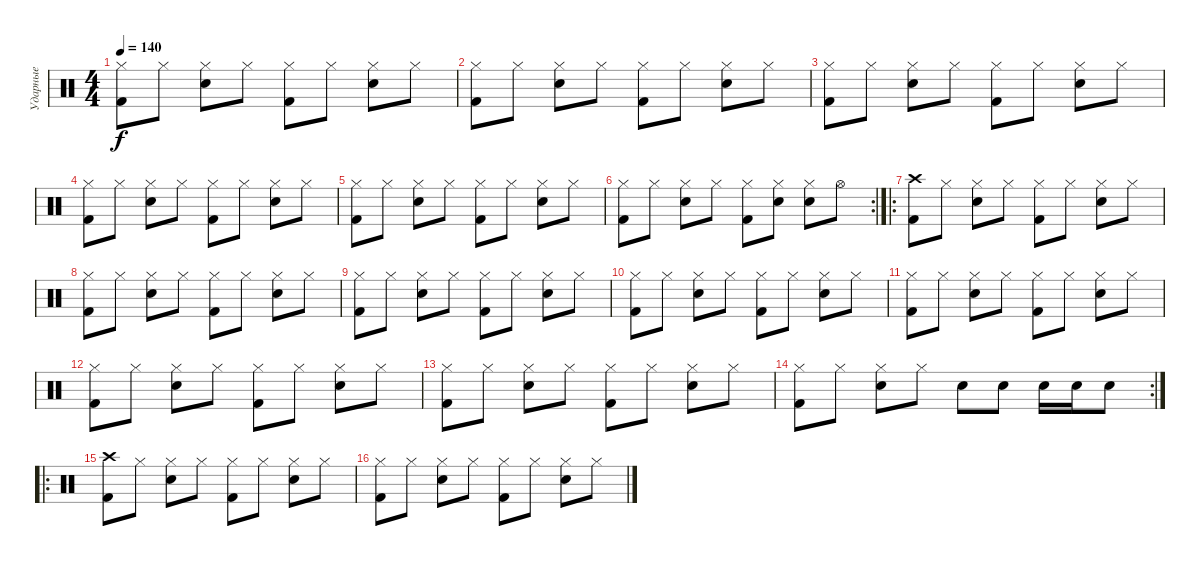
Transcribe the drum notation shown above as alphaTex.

\track ("Ударные" "Ударные") {instrument percussion}
\staff {score}
\articulation defaults
\ts (4 4)
\tempo 140
\clef neutral
\ks c
("Hi-Hat (closed)" "Kick (hit) 2").8{dy f} "Hi-Hat (closed)".8 ("Hi-Hat (closed)" "Snare (hit) 2").8 "Hi-Hat (closed)".8 ("Hi-Hat (closed)" "Kick (hit) 2").8 "Hi-Hat (closed)".8 ("Hi-Hat (closed)" "Snare (hit) 2").8 "Hi-Hat (closed)".8 |
("Hi-Hat (closed)" "Kick (hit) 2").8 "Hi-Hat (closed)".8 ("Hi-Hat (closed)" "Snare (hit) 2").8 "Hi-Hat (closed)".8 ("Hi-Hat (closed)" "Kick (hit) 2").8 "Hi-Hat (closed)".8 ("Hi-Hat (closed)" "Snare (hit) 2").8 "Hi-Hat (closed)".8 |
("Hi-Hat (closed)" "Kick (hit) 2").8 "Hi-Hat (closed)".8 ("Hi-Hat (closed)" "Snare (hit) 2").8 "Hi-Hat (closed)".8 ("Hi-Hat (closed)" "Kick (hit) 2").8 "Hi-Hat (closed)".8 ("Hi-Hat (closed)" "Snare (hit) 2").8 "Hi-Hat (closed)".8 |
("Hi-Hat (closed)" "Kick (hit) 2").8 "Hi-Hat (closed)".8 ("Hi-Hat (closed)" "Snare (hit) 2").8 "Hi-Hat (closed)".8 ("Hi-Hat (closed)" "Kick (hit) 2").8 "Hi-Hat (closed)".8 ("Hi-Hat (closed)" "Snare (hit) 2").8 "Hi-Hat (closed)".8 |
("Hi-Hat (closed)" "Kick (hit) 2").8 "Hi-Hat (closed)".8 ("Hi-Hat (closed)" "Snare (hit) 2").8 "Hi-Hat (closed)".8 ("Hi-Hat (closed)" "Kick (hit) 2").8 "Hi-Hat (closed)".8 ("Hi-Hat (closed)" "Snare (hit) 2").8 "Hi-Hat (closed)".8 |
\rc 2
("Hi-Hat (closed)" "Kick (hit) 2").8 "Hi-Hat (closed)".8 ("Hi-Hat (closed)" "Snare (hit) 2").8 "Hi-Hat (closed)".8 ("Hi-Hat (closed)" "Kick (hit) 2").8 ("Hi-Hat (closed)" "Snare (hit) 2").8 ("Hi-Hat (closed)" "Snare (hit) 2").8 "Hi-Hat (open)".8 |
\ro
("Crash high (hit)" "Kick (hit) 2").8 "Hi-Hat (closed)".8 ("Hi-Hat (closed)" "Snare (hit) 2").8 "Hi-Hat (closed)".8 ("Hi-Hat (closed)" "Kick (hit) 2").8 "Hi-Hat (closed)".8 ("Hi-Hat (closed)" "Snare (hit) 2").8 "Hi-Hat (closed)".8 |
("Hi-Hat (closed)" "Kick (hit) 2").8 "Hi-Hat (closed)".8 ("Hi-Hat (closed)" "Snare (hit) 2").8 "Hi-Hat (closed)".8 ("Hi-Hat (closed)" "Kick (hit) 2").8 "Hi-Hat (closed)".8 ("Hi-Hat (closed)" "Snare (hit) 2").8 "Hi-Hat (closed)".8 |
("Hi-Hat (closed)" "Kick (hit) 2").8 "Hi-Hat (closed)".8 ("Hi-Hat (closed)" "Snare (hit) 2").8 "Hi-Hat (closed)".8 ("Hi-Hat (closed)" "Kick (hit) 2").8 "Hi-Hat (closed)".8 ("Hi-Hat (closed)" "Snare (hit) 2").8 "Hi-Hat (closed)".8 |
("Hi-Hat (closed)" "Kick (hit) 2").8 "Hi-Hat (closed)".8 ("Hi-Hat (closed)" "Snare (hit) 2").8 "Hi-Hat (closed)".8 ("Hi-Hat (closed)" "Kick (hit) 2").8 "Hi-Hat (closed)".8 ("Hi-Hat (closed)" "Snare (hit) 2").8 "Hi-Hat (closed)".8 |
("Hi-Hat (closed)" "Kick (hit) 2").8 "Hi-Hat (closed)".8 ("Hi-Hat (closed)" "Snare (hit) 2").8 "Hi-Hat (closed)".8 ("Hi-Hat (closed)" "Kick (hit) 2").8 "Hi-Hat (closed)".8 ("Hi-Hat (closed)" "Snare (hit) 2").8 "Hi-Hat (closed)".8 |
("Hi-Hat (closed)" "Kick (hit) 2").8 "Hi-Hat (closed)".8 ("Hi-Hat (closed)" "Snare (hit) 2").8 "Hi-Hat (closed)".8 ("Hi-Hat (closed)" "Kick (hit) 2").8 "Hi-Hat (closed)".8 ("Hi-Hat (closed)" "Snare (hit) 2").8 "Hi-Hat (closed)".8 |
("Hi-Hat (closed)" "Kick (hit) 2").8 "Hi-Hat (closed)".8 ("Hi-Hat (closed)" "Snare (hit) 2").8 "Hi-Hat (closed)".8 ("Hi-Hat (closed)" "Kick (hit) 2").8 "Hi-Hat (closed)".8 ("Hi-Hat (closed)" "Snare (hit) 2").8 "Hi-Hat (closed)".8 |
\rc 2
("Hi-Hat (closed)" "Kick (hit) 2").8 "Hi-Hat (closed)".8 ("Hi-Hat (closed)" "Snare (hit) 2").8 "Hi-Hat (closed)".8 "Snare (hit) 2".8 "Snare (hit) 2".8 "Snare (hit) 2".16 "Snare (hit) 2".16 "Snare (hit) 2".8 |
\ro
("Crash high (hit)" "Kick (hit) 2").8 "Hi-Hat (closed)".8 ("Hi-Hat (closed)" "Snare (hit) 2").8 "Hi-Hat (closed)".8 ("Hi-Hat (closed)" "Kick (hit) 2").8 "Hi-Hat (closed)".8 ("Hi-Hat (closed)" "Snare (hit) 2").8 "Hi-Hat (closed)".8 |
("Hi-Hat (closed)" "Kick (hit) 2").8 "Hi-Hat (closed)".8 ("Hi-Hat (closed)" "Snare (hit) 2").8 "Hi-Hat (closed)".8 ("Hi-Hat (closed)" "Kick (hit) 2").8 "Hi-Hat (closed)".8 ("Hi-Hat (closed)" "Snare (hit) 2").8 "Hi-Hat (closed)".8
